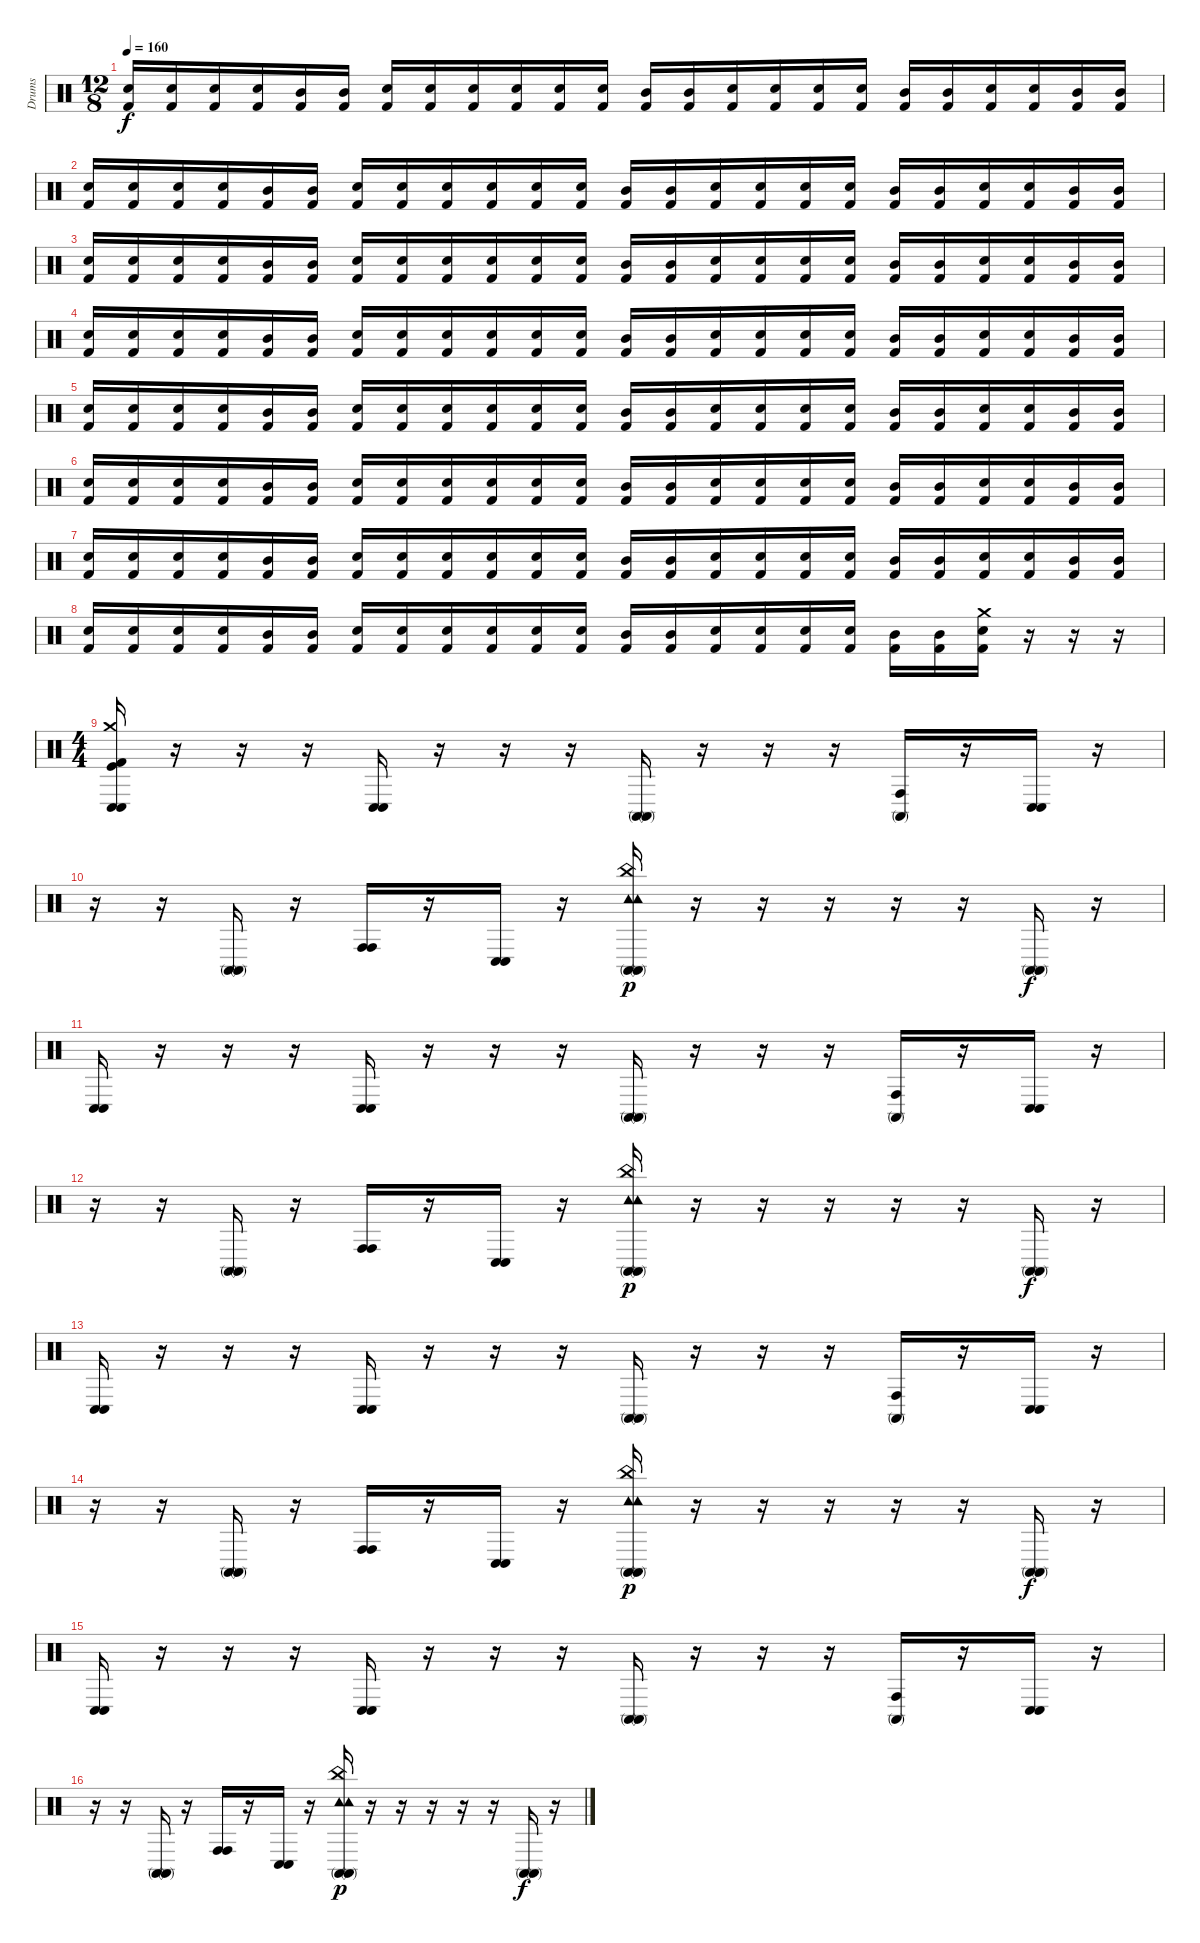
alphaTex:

\track ("Drums" "Drums") {instrument percussion}
\staff {score}
\articulation defaults
\ts (12 8)
\tempo 160
\clef neutral
\ks c
("Electric Snare (hit)" "Kick (hit) 2").16{dy f volume 16} ("Electric Snare (hit)" "Kick (hit) 2").16 ("Electric Snare (hit)" "Kick (hit) 2").16 ("Electric Snare (hit)" "Kick (hit) 2").16 ("Mid Tom (hit)" "Kick (hit) 2").16 ("Mid Tom (hit)" "Kick (hit) 2").16 ("Electric Snare (hit)" "Kick (hit) 2").16 ("Electric Snare (hit)" "Kick (hit) 2").16 ("Electric Snare (hit)" "Kick (hit) 2").16 ("Electric Snare (hit)" "Kick (hit) 2").16 ("Electric Snare (hit)" "Kick (hit) 2").16 ("Electric Snare (hit)" "Kick (hit) 2").16 ("Mid Tom (hit)" "Kick (hit) 2").16 ("Mid Tom (hit)" "Kick (hit) 2").16 ("Electric Snare (hit)" "Kick (hit) 2").16 ("Electric Snare (hit)" "Kick (hit) 2").16 ("Electric Snare (hit)" "Kick (hit) 2").16 ("Electric Snare (hit)" "Kick (hit) 2").16 ("Mid Tom (hit)" "Kick (hit) 2").16 ("Mid Tom (hit)" "Kick (hit) 2").16 ("Electric Snare (hit)" "Kick (hit) 2").16 ("Electric Snare (hit)" "Kick (hit) 2").16 ("Mid Tom (hit)" "Kick (hit) 2").16 ("Mid Tom (hit)" "Kick (hit) 2").16 |
("Electric Snare (hit)" "Kick (hit) 2").16{volume 16} ("Electric Snare (hit)" "Kick (hit) 2").16 ("Electric Snare (hit)" "Kick (hit) 2").16 ("Electric Snare (hit)" "Kick (hit) 2").16 ("Mid Tom (hit)" "Kick (hit) 2").16 ("Mid Tom (hit)" "Kick (hit) 2").16 ("Electric Snare (hit)" "Kick (hit) 2").16 ("Electric Snare (hit)" "Kick (hit) 2").16 ("Electric Snare (hit)" "Kick (hit) 2").16 ("Electric Snare (hit)" "Kick (hit) 2").16 ("Electric Snare (hit)" "Kick (hit) 2").16 ("Electric Snare (hit)" "Kick (hit) 2").16 ("Mid Tom (hit)" "Kick (hit) 2").16 ("Mid Tom (hit)" "Kick (hit) 2").16 ("Electric Snare (hit)" "Kick (hit) 2").16 ("Electric Snare (hit)" "Kick (hit) 2").16 ("Electric Snare (hit)" "Kick (hit) 2").16 ("Electric Snare (hit)" "Kick (hit) 2").16 ("Mid Tom (hit)" "Kick (hit) 2").16 ("Mid Tom (hit)" "Kick (hit) 2").16 ("Electric Snare (hit)" "Kick (hit) 2").16 ("Electric Snare (hit)" "Kick (hit) 2").16 ("Mid Tom (hit)" "Kick (hit) 2").16 ("Mid Tom (hit)" "Kick (hit) 2").16 |
("Electric Snare (hit)" "Kick (hit) 2").16{volume 16} ("Electric Snare (hit)" "Kick (hit) 2").16 ("Electric Snare (hit)" "Kick (hit) 2").16 ("Electric Snare (hit)" "Kick (hit) 2").16 ("Mid Tom (hit)" "Kick (hit) 2").16 ("Mid Tom (hit)" "Kick (hit) 2").16 ("Electric Snare (hit)" "Kick (hit) 2").16 ("Electric Snare (hit)" "Kick (hit) 2").16 ("Electric Snare (hit)" "Kick (hit) 2").16 ("Electric Snare (hit)" "Kick (hit) 2").16 ("Electric Snare (hit)" "Kick (hit) 2").16 ("Electric Snare (hit)" "Kick (hit) 2").16 ("Mid Tom (hit)" "Kick (hit) 2").16 ("Mid Tom (hit)" "Kick (hit) 2").16 ("Electric Snare (hit)" "Kick (hit) 2").16 ("Electric Snare (hit)" "Kick (hit) 2").16 ("Electric Snare (hit)" "Kick (hit) 2").16 ("Electric Snare (hit)" "Kick (hit) 2").16 ("Mid Tom (hit)" "Kick (hit) 2").16 ("Mid Tom (hit)" "Kick (hit) 2").16 ("Electric Snare (hit)" "Kick (hit) 2").16 ("Electric Snare (hit)" "Kick (hit) 2").16 ("Mid Tom (hit)" "Kick (hit) 2").16 ("Mid Tom (hit)" "Kick (hit) 2").16 |
("Electric Snare (hit)" "Kick (hit) 2").16{volume 16} ("Electric Snare (hit)" "Kick (hit) 2").16 ("Electric Snare (hit)" "Kick (hit) 2").16 ("Electric Snare (hit)" "Kick (hit) 2").16 ("Mid Tom (hit)" "Kick (hit) 2").16 ("Mid Tom (hit)" "Kick (hit) 2").16 ("Electric Snare (hit)" "Kick (hit) 2").16 ("Electric Snare (hit)" "Kick (hit) 2").16 ("Electric Snare (hit)" "Kick (hit) 2").16 ("Electric Snare (hit)" "Kick (hit) 2").16 ("Electric Snare (hit)" "Kick (hit) 2").16 ("Electric Snare (hit)" "Kick (hit) 2").16 ("Mid Tom (hit)" "Kick (hit) 2").16 ("Mid Tom (hit)" "Kick (hit) 2").16 ("Electric Snare (hit)" "Kick (hit) 2").16 ("Electric Snare (hit)" "Kick (hit) 2").16 ("Electric Snare (hit)" "Kick (hit) 2").16 ("Electric Snare (hit)" "Kick (hit) 2").16 ("Mid Tom (hit)" "Kick (hit) 2").16 ("Mid Tom (hit)" "Kick (hit) 2").16 ("Electric Snare (hit)" "Kick (hit) 2").16 ("Electric Snare (hit)" "Kick (hit) 2").16 ("Mid Tom (hit)" "Kick (hit) 2").16 ("Mid Tom (hit)" "Kick (hit) 2").16 |
("Electric Snare (hit)" "Kick (hit) 2").16{volume 16} ("Electric Snare (hit)" "Kick (hit) 2").16 ("Electric Snare (hit)" "Kick (hit) 2").16 ("Electric Snare (hit)" "Kick (hit) 2").16 ("Mid Tom (hit)" "Kick (hit) 2").16 ("Mid Tom (hit)" "Kick (hit) 2").16 ("Electric Snare (hit)" "Kick (hit) 2").16 ("Electric Snare (hit)" "Kick (hit) 2").16 ("Electric Snare (hit)" "Kick (hit) 2").16 ("Electric Snare (hit)" "Kick (hit) 2").16 ("Electric Snare (hit)" "Kick (hit) 2").16 ("Electric Snare (hit)" "Kick (hit) 2").16 ("Mid Tom (hit)" "Kick (hit) 2").16 ("Mid Tom (hit)" "Kick (hit) 2").16 ("Electric Snare (hit)" "Kick (hit) 2").16 ("Electric Snare (hit)" "Kick (hit) 2").16 ("Electric Snare (hit)" "Kick (hit) 2").16 ("Electric Snare (hit)" "Kick (hit) 2").16 ("Mid Tom (hit)" "Kick (hit) 2").16 ("Mid Tom (hit)" "Kick (hit) 2").16 ("Electric Snare (hit)" "Kick (hit) 2").16 ("Electric Snare (hit)" "Kick (hit) 2").16 ("Mid Tom (hit)" "Kick (hit) 2").16 ("Mid Tom (hit)" "Kick (hit) 2").16 |
("Electric Snare (hit)" "Kick (hit) 2").16{volume 16} ("Electric Snare (hit)" "Kick (hit) 2").16 ("Electric Snare (hit)" "Kick (hit) 2").16 ("Electric Snare (hit)" "Kick (hit) 2").16 ("Mid Tom (hit)" "Kick (hit) 2").16 ("Mid Tom (hit)" "Kick (hit) 2").16 ("Electric Snare (hit)" "Kick (hit) 2").16 ("Electric Snare (hit)" "Kick (hit) 2").16 ("Electric Snare (hit)" "Kick (hit) 2").16 ("Electric Snare (hit)" "Kick (hit) 2").16 ("Electric Snare (hit)" "Kick (hit) 2").16 ("Electric Snare (hit)" "Kick (hit) 2").16 ("Mid Tom (hit)" "Kick (hit) 2").16 ("Mid Tom (hit)" "Kick (hit) 2").16 ("Electric Snare (hit)" "Kick (hit) 2").16 ("Electric Snare (hit)" "Kick (hit) 2").16 ("Electric Snare (hit)" "Kick (hit) 2").16 ("Electric Snare (hit)" "Kick (hit) 2").16 ("Mid Tom (hit)" "Kick (hit) 2").16 ("Mid Tom (hit)" "Kick (hit) 2").16 ("Electric Snare (hit)" "Kick (hit) 2").16 ("Electric Snare (hit)" "Kick (hit) 2").16 ("Mid Tom (hit)" "Kick (hit) 2").16 ("Mid Tom (hit)" "Kick (hit) 2").16 |
("Electric Snare (hit)" "Kick (hit) 2").16{volume 16} ("Electric Snare (hit)" "Kick (hit) 2").16 ("Electric Snare (hit)" "Kick (hit) 2").16 ("Electric Snare (hit)" "Kick (hit) 2").16 ("Mid Tom (hit)" "Kick (hit) 2").16 ("Mid Tom (hit)" "Kick (hit) 2").16 ("Electric Snare (hit)" "Kick (hit) 2").16 ("Electric Snare (hit)" "Kick (hit) 2").16 ("Electric Snare (hit)" "Kick (hit) 2").16 ("Electric Snare (hit)" "Kick (hit) 2").16 ("Electric Snare (hit)" "Kick (hit) 2").16 ("Electric Snare (hit)" "Kick (hit) 2").16 ("Mid Tom (hit)" "Kick (hit) 2").16 ("Mid Tom (hit)" "Kick (hit) 2").16 ("Electric Snare (hit)" "Kick (hit) 2").16 ("Electric Snare (hit)" "Kick (hit) 2").16 ("Electric Snare (hit)" "Kick (hit) 2").16 ("Electric Snare (hit)" "Kick (hit) 2").16 ("Mid Tom (hit)" "Kick (hit) 2").16 ("Mid Tom (hit)" "Kick (hit) 2").16 ("Electric Snare (hit)" "Kick (hit) 2").16 ("Electric Snare (hit)" "Kick (hit) 2").16 ("Mid Tom (hit)" "Kick (hit) 2").16 ("Mid Tom (hit)" "Kick (hit) 2").16 |
("Electric Snare (hit)" "Kick (hit) 2").16{volume 16} ("Electric Snare (hit)" "Kick (hit) 2").16 ("Electric Snare (hit)" "Kick (hit) 2").16 ("Electric Snare (hit)" "Kick (hit) 2").16 ("Mid Tom (hit)" "Kick (hit) 2").16 ("Mid Tom (hit)" "Kick (hit) 2").16 ("Electric Snare (hit)" "Kick (hit) 2").16 ("Electric Snare (hit)" "Kick (hit) 2").16 ("Electric Snare (hit)" "Kick (hit) 2").16 ("Electric Snare (hit)" "Kick (hit) 2").16 ("Electric Snare (hit)" "Kick (hit) 2").16 ("Electric Snare (hit)" "Kick (hit) 2").16 ("Mid Tom (hit)" "Kick (hit) 2").16 ("Mid Tom (hit)" "Kick (hit) 2").16 ("Electric Snare (hit)" "Kick (hit) 2").16 ("Electric Snare (hit)" "Kick (hit) 2").16 ("Electric Snare (hit)" "Kick (hit) 2").16 ("Electric Snare (hit)" "Kick (hit) 2").16 ("Mid Tom (hit)" "Kick (hit) 2").16 ("Mid Tom (hit)" "Kick (hit) 2").16 ("Crash medium (hit)" "Electric Snare (hit)" "Kick (hit) 2").16 r.16 r.16 r.16 |
\ts (4 4)
("Conga low (hit)" "Conga low (hit)" "Crash medium (hit)" "Kick (hit)" "Kick (hit) 2").16 r.16 r.16 r.16 ("Conga low (hit)" "Conga low (hit)").16 r.16 r.16 r.16 ("Conga high (mute)" "Conga high (mute)").16 r.16 r.16 r.16 ("Conga high (hit)" "Conga high (mute)").16 r.16 ("Conga low (hit)" "Conga low (hit)").16 r.16 |
r.16 r.16 ("Conga high (mute)" "Conga high (mute)").16 r.16 ("Conga high (hit)" "Conga high (hit)").16 r.16 ("Conga low (hit)" "Conga low (hit)").16 r.16 ("Conga high (mute)" "Conga high (mute)" "Tambourine (hit)" "Tambourine (hit)" "China (hit)").16{dy p} r.16 r.16 r.16 r.16 r.16 ("Conga high (mute)" "Conga high (mute)").16{dy f} r.16 |
("Conga low (hit)" "Conga low (hit)").16 r.16 r.16 r.16 ("Conga low (hit)" "Conga low (hit)").16 r.16 r.16 r.16 ("Conga high (mute)" "Conga high (mute)").16 r.16 r.16 r.16 ("Conga high (hit)" "Conga high (mute)").16 r.16 ("Conga low (hit)" "Conga low (hit)").16 r.16 |
r.16 r.16 ("Conga high (mute)" "Conga high (mute)").16 r.16 ("Conga high (hit)" "Conga high (hit)").16 r.16 ("Conga low (hit)" "Conga low (hit)").16 r.16 ("Conga high (mute)" "Conga high (mute)" "Tambourine (hit)" "Tambourine (hit)" "China (hit)").16{dy p} r.16 r.16 r.16 r.16 r.16 ("Conga high (mute)" "Conga high (mute)").16{dy f} r.16 |
("Conga low (hit)" "Conga low (hit)").16 r.16 r.16 r.16 ("Conga low (hit)" "Conga low (hit)").16 r.16 r.16 r.16 ("Conga high (mute)" "Conga high (mute)").16 r.16 r.16 r.16 ("Conga high (hit)" "Conga high (mute)").16 r.16 ("Conga low (hit)" "Conga low (hit)").16 r.16 |
r.16 r.16 ("Conga high (mute)" "Conga high (mute)").16 r.16 ("Conga high (hit)" "Conga high (hit)").16 r.16 ("Conga low (hit)" "Conga low (hit)").16 r.16 ("Conga high (mute)" "Conga high (mute)" "Tambourine (hit)" "Tambourine (hit)" "China (hit)").16{dy p} r.16 r.16 r.16 r.16 r.16 ("Conga high (mute)" "Conga high (mute)").16{dy f} r.16 |
("Conga low (hit)" "Conga low (hit)").16 r.16 r.16 r.16 ("Conga low (hit)" "Conga low (hit)").16 r.16 r.16 r.16 ("Conga high (mute)" "Conga high (mute)").16 r.16 r.16 r.16 ("Conga high (hit)" "Conga high (mute)").16 r.16 ("Conga low (hit)" "Conga low (hit)").16 r.16 |
r.16 r.16 ("Conga high (mute)" "Conga high (mute)").16 r.16 ("Conga high (hit)" "Conga high (hit)").16 r.16 ("Conga low (hit)" "Conga low (hit)").16 r.16 ("Conga high (mute)" "Conga high (mute)" "Tambourine (hit)" "Tambourine (hit)" "China (hit)").16{dy p} r.16 r.16 r.16 r.16 r.16 ("Conga high (mute)" "Conga high (mute)").16{dy f} r.16
